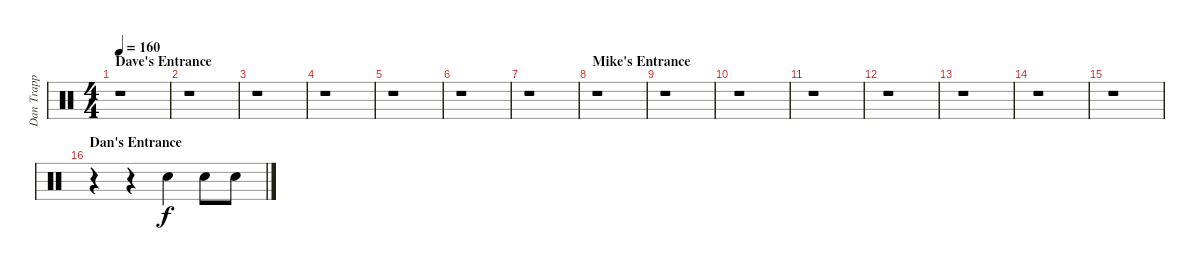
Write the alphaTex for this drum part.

\track ("Dan Trapp" "Dan Trapp") {instrument percussion}
\staff {score}
\articulation defaults
\ts (4 4)
\section ("" "Dave's Entrance")
\tempo 160
\clef neutral
\ks c
r.1{dy f} |
r.1 |
r.1 |
r.1 |
r.1 |
r.1 |
r.1 |
\section ("" "Mike's Entrance")
r.1 |
r.1 |
r.1 |
r.1 |
r.1 |
r.1 |
r.1 |
r.1 |
\section ("" "Dan's Entrance")
r.4 r.4 "Snare (hit) 2".4 "Snare (hit) 2".8 "Snare (hit) 2".8
